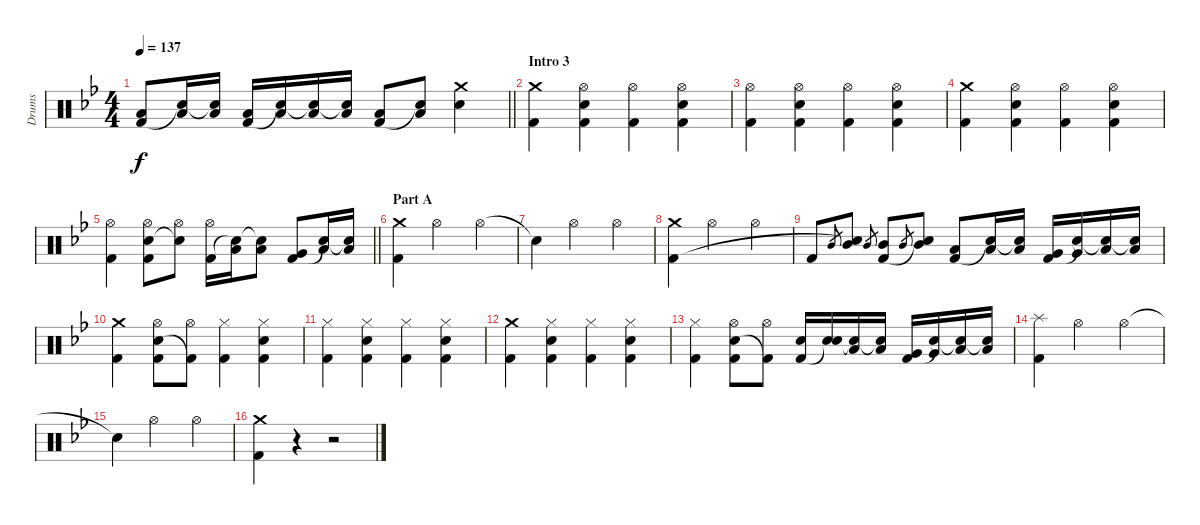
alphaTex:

\track ("Drums" "Drums") {instrument percussion}
\staff {score}
\articulation defaults
\ts (4 4)
\tempo 137
\clef neutral
\barLineRight lightlight
\ks bb
("Low Floor Tom (hit)" "Kick (hit) 2").8{dy f} ("Low Floor Tom (hit)" "Snare (hit)"{t}).16 ("Low Floor Tom (hit)" "Snare (hit)"{t}).16 ("Low Floor Tom (hit)" "Kick (hit) 2").16 ("Low Floor Tom (hit)" "Snare (hit)"{t}).16 ("Low Floor Tom (hit)" "Snare (hit)"{t}).16 ("Low Floor Tom (hit)" "Snare (hit)"{t}).16 ("Low Floor Tom (hit)" "Kick (hit) 2").8 ("Low Floor Tom (hit)" "Snare (hit)"{t}).8 ("Crash medium (hit)" "Electric Snare (hit)").4 |
\section ("" "Intro 3")
("Crash medium (hit)" "Kick (hit) 2").4 ("Hi-Hat (open)" "Electric Snare (hit)" "Kick (hit) 2").4 ("Hi-Hat (open)" "Kick (hit) 2").4 ("Hi-Hat (open)" "Electric Snare (hit)" "Kick (hit) 2").4 |
("Hi-Hat (open)" "Kick (hit) 2").4 ("Hi-Hat (open)" "Electric Snare (hit)" "Kick (hit) 2").4 ("Hi-Hat (open)" "Kick (hit) 2").4 ("Hi-Hat (open)" "Electric Snare (hit)" "Kick (hit) 2").4 |
("Crash medium (hit)" "Kick (hit) 2").4 ("Hi-Hat (open)" "Electric Snare (hit)" "Kick (hit) 2").4 ("Hi-Hat (open)" "Kick (hit) 2").4 ("Hi-Hat (open)" "Electric Snare (hit)" "Kick (hit) 2").4 |
\barLineRight lightlight
("Hi-Hat (open)" "Kick (hit) 2").4 ("Hi-Hat (open)" "Electric Snare (hit)" "Kick (hit) 2").8 ("Hi-Hat (open)" "Snare (hit)"{t}).8 ("Hi-Hat (open)" "Kick (hit) 2").16 ("Low Tom (hit)" "Snare (hit)"{t}).16 ("Low Tom (hit)" "Snare (hit)"{t}).8 ("Very Low Tom (hit)" "Kick (hit) 2").8 ("Low Floor Tom (hit)" "Snare (hit)"{t}).16 ("Low Floor Tom (hit)" "Snare (hit)"{t}).16 |
\section ("" "Part A")
("Crash medium (hit)" "Kick (hit) 2").4 "Hi-Hat (open)".2 "Hi-Hat (open)".4 |
"Snare (hit)"{t}.4 "Hi-Hat (open)".2 "Hi-Hat (open)".4 |
("Crash medium (hit)" "Kick (hit) 2").4 "Hi-Hat (open)".2 "Hi-Hat (open)".4 |
"Kick (hit) 2".8 "Mid Tom (hit)".8{gr} ("Mid Tom (hit)" "Snare (hit)"{t}).8 "Mid Tom (hit)".8{gr} ("Mid Tom (hit)" "Kick (hit) 2").8 "Mid Tom (hit)".8{gr} ("Mid Tom (hit)" "Snare (hit)"{t}).8 ("Low Tom (hit)" "Kick (hit) 2").8 ("Low Tom (hit)" "Snare (hit)"{t}).16 ("Low Tom (hit)" "Snare (hit)"{t}).16 ("Very Low Tom (hit)" "Kick (hit) 2").16 ("Very Low Tom (hit)" "Snare (hit)"{t}).16 ("Low Floor Tom (hit)" "Snare (hit)"{t}).16 ("Low Floor Tom (hit)" "Snare (hit)"{t}).16 |
("Crash medium (hit)" "Kick (hit) 2").4 ("Hi-Hat (open)" "Electric Snare (hit)" "Kick (hit) 2").8 ("Hi-Hat (open)" "Kick (hit) 2"{t}).8 ("Hi-Hat (closed)" "Kick (hit) 2").4 ("Hi-Hat (closed)" "Electric Snare (hit)" "Kick (hit) 2").4 |
("Hi-Hat (closed)" "Kick (hit) 2").4 ("Hi-Hat (closed)" "Electric Snare (hit)" "Kick (hit) 2").4 ("Hi-Hat (closed)" "Kick (hit) 2").4 ("Hi-Hat (closed)" "Electric Snare (hit)" "Kick (hit) 2").4 |
("Crash medium (hit)" "Kick (hit) 2").4 ("Hi-Hat (closed)" "Electric Snare (hit)" "Kick (hit) 2").4 ("Hi-Hat (closed)" "Kick (hit) 2").4 ("Hi-Hat (closed)" "Electric Snare (hit)" "Kick (hit) 2").4 |
("Hi-Hat (closed)" "Kick (hit) 2").4 ("Hi-Hat (open)" "Electric Snare (hit)" "Kick (hit) 2").8 ("Hi-Hat (open)" "Kick (hit) 2"{t}).8 ("Electric Snare (hit)" "Kick (hit) 2").16 ("Electric Snare (hit)" "Snare (hit)"{t}).16 ("Low Tom (hit)" "Snare (hit)"{t}).16 ("Low Tom (hit)" "Snare (hit)"{t}).16 ("Very Low Tom (hit)" "Kick (hit) 2").16 ("Very Low Tom (hit)" "Snare (hit)"{t}).16 ("Low Floor Tom (hit)" "Snare (hit)"{t}).16 ("Low Floor Tom (hit)" "Snare (hit)"{t}).16 |
("Splash (hit)" "Kick (hit) 2").4 "Hi-Hat (open)".2 "Hi-Hat (open)".4 |
"Snare (hit)"{t}.4 "Hi-Hat (open)".2 "Hi-Hat (open)".4 |
("Crash medium (hit)" "Kick (hit) 2").4 r.4 r.2
